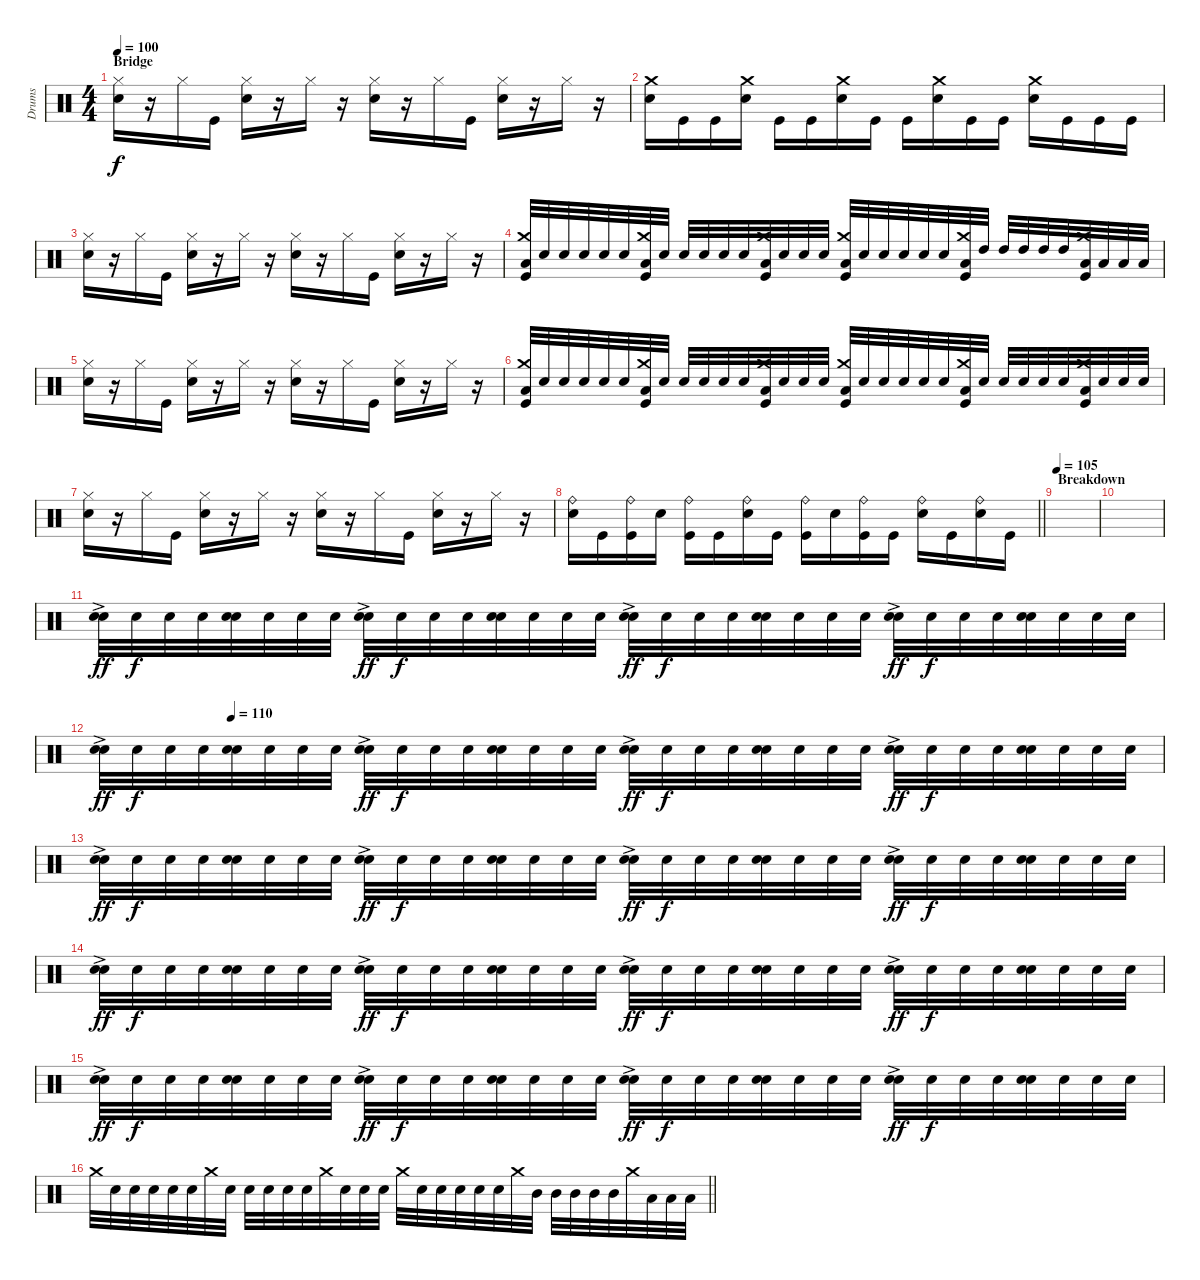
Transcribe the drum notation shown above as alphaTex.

\track ("Drums" "Drums") {instrument percussion}
\staff {score}
\articulation defaults
\ts (4 4)
\section ("" "Bridge")
\tempo 100
\clef neutral
\ks c
("Hi-Hat (closed)" "Snare (hit) 2").16{dy f} r.16 "Hi-Hat (closed)".16 "Kick (hit)".16 ("Hi-Hat (closed)" "Snare (hit) 2").16 r.16 "Hi-Hat (closed)".16 r.16 ("Hi-Hat (closed)" "Snare (hit) 2").16 r.16 "Hi-Hat (closed)".16 "Kick (hit)".16 ("Hi-Hat (closed)" "Snare (hit) 2").16 r.16 "Hi-Hat (closed)".16 r.16 |
("Crash medium (hit)" "Snare (hit) 2").16 "Kick (hit)".16 "Kick (hit)".16 ("Crash medium (hit)" "Snare (hit) 2").16 "Kick (hit)".16 "Kick (hit)".16 ("Crash medium (hit)" "Snare (hit) 2").16 "Kick (hit)".16 "Kick (hit)".16 ("Crash medium (hit)" "Snare (hit) 2").16 "Kick (hit)".16 "Kick (hit)".16 ("Crash medium (hit)" "Snare (hit) 2").16 "Kick (hit)".16 "Kick (hit)".16 "Kick (hit)".16 |
("Hi-Hat (closed)" "Snare (hit) 2").16 r.16 "Hi-Hat (closed)".16 "Kick (hit)".16 ("Hi-Hat (closed)" "Snare (hit) 2").16 r.16 "Hi-Hat (closed)".16 r.16 ("Hi-Hat (closed)" "Snare (hit) 2").16 r.16 "Hi-Hat (closed)".16 "Kick (hit)".16 ("Hi-Hat (closed)" "Snare (hit) 2").16 r.16 "Hi-Hat (closed)".16 r.16 |
("Crash medium (hit)" "Low Floor Tom (hit)" "Kick (hit)").32 "Snare (hit) 2".32 "Snare (hit) 2".32 "Snare (hit) 2".32 "Snare (hit) 2".32 "Snare (hit) 2".32 ("Crash medium (hit)" "Low Floor Tom (hit)" "Kick (hit)").32 "Snare (hit) 2".32 "Snare (hit) 2".32 "Snare (hit) 2".32 "Snare (hit) 2".32 "Snare (hit) 2".32 ("Crash medium (hit)" "Low Floor Tom (hit)" "Kick (hit)").32 "Snare (hit) 2".32 "Snare (hit) 2".32 "Snare (hit) 2".32 ("Crash medium (hit)" "Low Floor Tom (hit)" "Kick (hit)").32 "Snare (hit) 2".32 "Snare (hit) 2".32 "Snare (hit) 2".32 "Snare (hit) 2".32 "Snare (hit) 2".32 ("Crash medium (hit)" "Low Floor Tom (hit)" "Kick (hit)").32 "High Tom (hit)".32 "High Tom (hit)".32 "High Tom (hit)".32 "High Tom (hit)".32 "High Tom (hit)".32 ("Crash medium (hit)" "Low Floor Tom (hit)" "Kick (hit)").32 "Low Floor Tom (hit)".32 "Low Floor Tom (hit)".32 "Low Floor Tom (hit)".32 |
("Hi-Hat (closed)" "Snare (hit) 2").16 r.16 "Hi-Hat (closed)".16 "Kick (hit)".16 ("Hi-Hat (closed)" "Snare (hit) 2").16 r.16 "Hi-Hat (closed)".16 r.16 ("Hi-Hat (closed)" "Snare (hit) 2").16 r.16 "Hi-Hat (closed)".16 "Kick (hit)".16 ("Hi-Hat (closed)" "Snare (hit) 2").16 r.16 "Hi-Hat (closed)".16 r.16 |
("Crash medium (hit)" "Low Floor Tom (hit)" "Kick (hit)").32 "Snare (hit) 2".32 "Snare (hit) 2".32 "Snare (hit) 2".32 "Snare (hit) 2".32 "Snare (hit) 2".32 ("Crash medium (hit)" "Low Floor Tom (hit)" "Kick (hit)").32 "Snare (hit) 2".32 "Snare (hit) 2".32 "Snare (hit) 2".32 "Snare (hit) 2".32 "Snare (hit) 2".32 ("Crash medium (hit)" "Low Floor Tom (hit)" "Kick (hit)").32 "Snare (hit) 2".32 "Snare (hit) 2".32 "Snare (hit) 2".32 ("Crash medium (hit)" "Low Floor Tom (hit)" "Kick (hit)").32 "Snare (hit) 2".32 "Snare (hit) 2".32 "Snare (hit) 2".32 "Snare (hit) 2".32 "Snare (hit) 2".32 ("Crash medium (hit)" "Low Floor Tom (hit)" "Kick (hit)").32 "Snare (hit) 2".32 "Snare (hit) 2".32 "Snare (hit) 2".32 "Snare (hit) 2".32 "Snare (hit) 2".32 ("Crash medium (hit)" "Low Floor Tom (hit)" "Kick (hit)").32 "Snare (hit) 2".32 "Snare (hit) 2".32 "Snare (hit) 2".32 |
("Hi-Hat (closed)" "Snare (hit) 2").16 r.16 "Hi-Hat (closed)".16 "Kick (hit)".16 ("Hi-Hat (closed)" "Snare (hit) 2").16 r.16 "Hi-Hat (closed)".16 r.16 ("Hi-Hat (closed)" "Snare (hit) 2").16 r.16 "Hi-Hat (closed)".16 "Kick (hit)".16 ("Hi-Hat (closed)" "Snare (hit) 2").16 r.16 "Hi-Hat (closed)".16 r.16 |
\barLineRight lightlight
("Ride (bell)" "Snare (hit) 2").16 "Kick (hit)".16 ("Ride (bell)" "Kick (hit)").16 "Snare (hit) 2".16 ("Ride (bell)" "Kick (hit)").16 "Kick (hit)".16 ("Ride (bell)" "Snare (hit) 2").16 "Kick (hit)".16 ("Ride (bell)" "Kick (hit)").16 "Snare (hit) 2".16 ("Ride (bell)" "Kick (hit)").16 "Kick (hit)".16 ("Ride (bell)" "Snare (hit) 2").16 "Kick (hit)".16 ("Ride (bell)" "Snare (hit) 2").16 "Kick (hit)".16 |
\section ("" "Breakdown")
\tempo 105
|
|
("Snare (hit) 2" "Snare (hit) 2"{ac}).32{dy ff} "Snare (hit) 2".32{dy f} "Snare (hit) 2".32 "Snare (hit) 2".32 ("Snare (hit) 2" "Snare (hit) 2").32 "Snare (hit) 2".32 "Snare (hit) 2".32 "Snare (hit) 2".32 ("Snare (hit) 2" "Snare (hit) 2"{ac}).32{dy ff} "Snare (hit) 2".32{dy f} "Snare (hit) 2".32 "Snare (hit) 2".32 ("Snare (hit) 2" "Snare (hit) 2").32 "Snare (hit) 2".32 "Snare (hit) 2".32 "Snare (hit) 2".32 ("Snare (hit) 2" "Snare (hit) 2"{ac}).32{dy ff} "Snare (hit) 2".32{dy f} "Snare (hit) 2".32 "Snare (hit) 2".32 ("Snare (hit) 2" "Snare (hit) 2").32 "Snare (hit) 2".32 "Snare (hit) 2".32 "Snare (hit) 2".32 ("Snare (hit) 2" "Snare (hit) 2"{ac}).32{dy ff} "Snare (hit) 2".32{dy f} "Snare (hit) 2".32 "Snare (hit) 2".32 ("Snare (hit) 2" "Snare (hit) 2").32 "Snare (hit) 2".32 "Snare (hit) 2".32 "Snare (hit) 2".32 |
\tempo (110 0.125)
("Snare (hit) 2" "Snare (hit) 2"{ac}).32{dy ff} "Snare (hit) 2".32{dy f} "Snare (hit) 2".32 "Snare (hit) 2".32 ("Snare (hit) 2" "Snare (hit) 2").32 "Snare (hit) 2".32 "Snare (hit) 2".32 "Snare (hit) 2".32 ("Snare (hit) 2" "Snare (hit) 2"{ac}).32{dy ff} "Snare (hit) 2".32{dy f} "Snare (hit) 2".32 "Snare (hit) 2".32 ("Snare (hit) 2" "Snare (hit) 2").32 "Snare (hit) 2".32 "Snare (hit) 2".32 "Snare (hit) 2".32 ("Snare (hit) 2" "Snare (hit) 2"{ac}).32{dy ff} "Snare (hit) 2".32{dy f} "Snare (hit) 2".32 "Snare (hit) 2".32 ("Snare (hit) 2" "Snare (hit) 2").32 "Snare (hit) 2".32 "Snare (hit) 2".32 "Snare (hit) 2".32 ("Snare (hit) 2" "Snare (hit) 2"{ac}).32{dy ff} "Snare (hit) 2".32{dy f} "Snare (hit) 2".32 "Snare (hit) 2".32 ("Snare (hit) 2" "Snare (hit) 2").32 "Snare (hit) 2".32 "Snare (hit) 2".32 "Snare (hit) 2".32 |
("Snare (hit) 2" "Snare (hit) 2"{ac}).32{dy ff} "Snare (hit) 2".32{dy f} "Snare (hit) 2".32 "Snare (hit) 2".32 ("Snare (hit) 2" "Snare (hit) 2").32 "Snare (hit) 2".32 "Snare (hit) 2".32 "Snare (hit) 2".32 ("Snare (hit) 2" "Snare (hit) 2"{ac}).32{dy ff} "Snare (hit) 2".32{dy f} "Snare (hit) 2".32 "Snare (hit) 2".32 ("Snare (hit) 2" "Snare (hit) 2").32 "Snare (hit) 2".32 "Snare (hit) 2".32 "Snare (hit) 2".32 ("Snare (hit) 2" "Snare (hit) 2"{ac}).32{dy ff} "Snare (hit) 2".32{dy f} "Snare (hit) 2".32 "Snare (hit) 2".32 ("Snare (hit) 2" "Snare (hit) 2").32 "Snare (hit) 2".32 "Snare (hit) 2".32 "Snare (hit) 2".32 ("Snare (hit) 2" "Snare (hit) 2"{ac}).32{dy ff} "Snare (hit) 2".32{dy f} "Snare (hit) 2".32 "Snare (hit) 2".32 ("Snare (hit) 2" "Snare (hit) 2").32 "Snare (hit) 2".32 "Snare (hit) 2".32 "Snare (hit) 2".32 |
("Snare (hit) 2" "Snare (hit) 2"{ac}).32{dy ff} "Snare (hit) 2".32{dy f} "Snare (hit) 2".32 "Snare (hit) 2".32 ("Snare (hit) 2" "Snare (hit) 2").32 "Snare (hit) 2".32 "Snare (hit) 2".32 "Snare (hit) 2".32 ("Snare (hit) 2" "Snare (hit) 2"{ac}).32{dy ff} "Snare (hit) 2".32{dy f} "Snare (hit) 2".32 "Snare (hit) 2".32 ("Snare (hit) 2" "Snare (hit) 2").32 "Snare (hit) 2".32 "Snare (hit) 2".32 "Snare (hit) 2".32 ("Snare (hit) 2" "Snare (hit) 2"{ac}).32{dy ff} "Snare (hit) 2".32{dy f} "Snare (hit) 2".32 "Snare (hit) 2".32 ("Snare (hit) 2" "Snare (hit) 2").32 "Snare (hit) 2".32 "Snare (hit) 2".32 "Snare (hit) 2".32 ("Snare (hit) 2" "Snare (hit) 2"{ac}).32{dy ff} "Snare (hit) 2".32{dy f} "Snare (hit) 2".32 "Snare (hit) 2".32 ("Snare (hit) 2" "Snare (hit) 2").32 "Snare (hit) 2".32 "Snare (hit) 2".32 "Snare (hit) 2".32 |
("Snare (hit) 2" "Snare (hit) 2"{ac}).32{dy ff} "Snare (hit) 2".32{dy f} "Snare (hit) 2".32 "Snare (hit) 2".32 ("Snare (hit) 2" "Snare (hit) 2").32 "Snare (hit) 2".32 "Snare (hit) 2".32 "Snare (hit) 2".32 ("Snare (hit) 2" "Snare (hit) 2"{ac}).32{dy ff} "Snare (hit) 2".32{dy f} "Snare (hit) 2".32 "Snare (hit) 2".32 ("Snare (hit) 2" "Snare (hit) 2").32 "Snare (hit) 2".32 "Snare (hit) 2".32 "Snare (hit) 2".32 ("Snare (hit) 2" "Snare (hit) 2"{ac}).32{dy ff} "Snare (hit) 2".32{dy f} "Snare (hit) 2".32 "Snare (hit) 2".32 ("Snare (hit) 2" "Snare (hit) 2").32 "Snare (hit) 2".32 "Snare (hit) 2".32 "Snare (hit) 2".32 ("Snare (hit) 2" "Snare (hit) 2"{ac}).32{dy ff} "Snare (hit) 2".32{dy f} "Snare (hit) 2".32 "Snare (hit) 2".32 ("Snare (hit) 2" "Snare (hit) 2").32 "Snare (hit) 2".32 "Snare (hit) 2".32 "Snare (hit) 2".32 |
\barLineRight lightlight "Crash medium (hit)".32 "Snare (hit) 2".32 "Snare (hit) 2".32 "Snare (hit) 2".32 "Snare (hit) 2".32 "Snare (hit) 2".32 "Crash medium (hit)".32 "Snare (hit) 2".32 "Snare (hit) 2".32 "Snare (hit) 2".32 "Snare (hit) 2".32 "Snare (hit) 2".32 "Crash medium (hit)".32 "Snare (hit) 2".32 "Snare (hit) 2".32 "Snare (hit) 2".32 "Crash medium (hit)".32 "Snare (hit) 2".32 "Snare (hit) 2".32 "Snare (hit) 2".32 "Snare (hit) 2".32 "Snare (hit) 2".32 "Crash medium (hit)".32 "Mid Tom (hit)".32 "Mid Tom (hit)".32 "Mid Tom (hit)".32 "Mid Tom (hit)".32 "Mid Tom (hit)".32 "Crash medium (hit)".32 "Low Floor Tom (hit)".32 "Low Floor Tom (hit)".32 "Low Floor Tom (hit)".32
